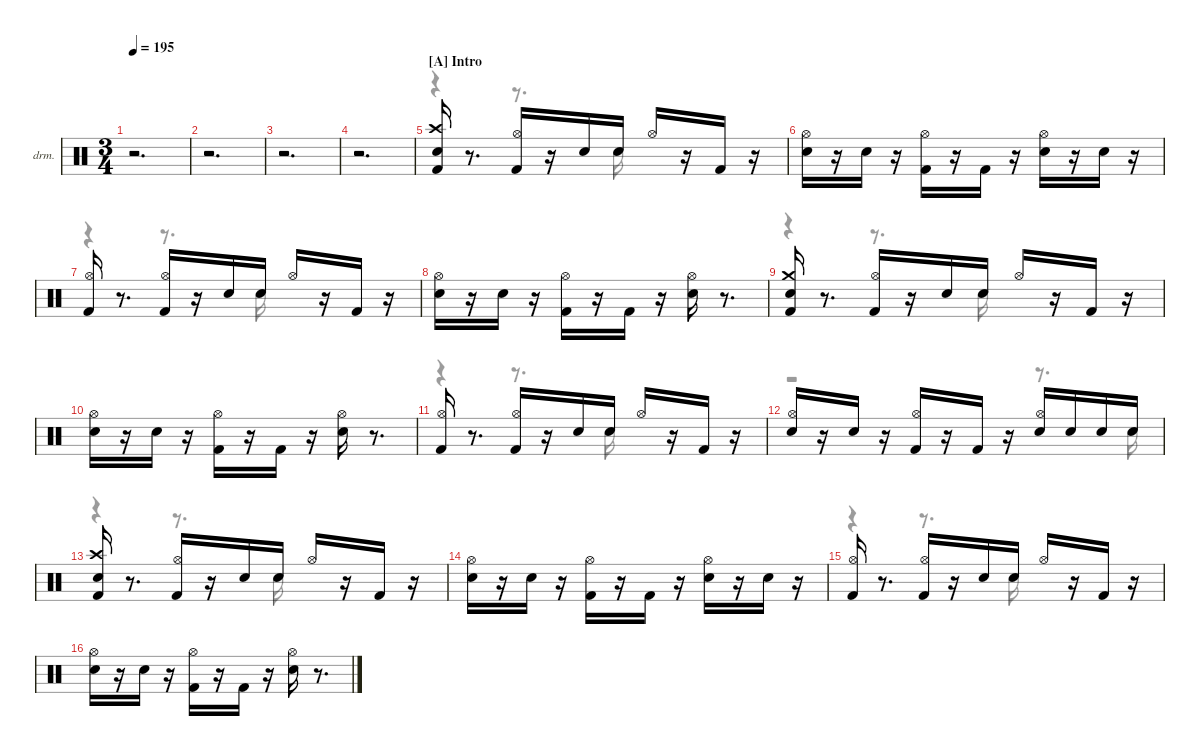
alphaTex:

\hideDynamics
\bracketExtendMode nobrackets
\firstSystemTrackNameOrientation horizontal
\track ("Drums" "drm.") {instrument percussion}
\staff {score}
\articulation defaults
\voice
\ts (3 4)
\tempo 195
\clef neutral
\ks aminor
r.2{d dy ff} |
r.2{d} |
r.2{d} |
r.2{d} |
\section ("A" "Intro")
("Kick (hit) 2" "Snare (hit) 2" "Crash high (hit)"{acc #}).16 r.8{d} ("Kick (hit) 2" "Hi-Hat (open)"{acc #}).16{dy mf} r.16 "Snare (hit) 2".16{dy f} "Snare (hit) 2".16{dy ppp} "Hi-Hat (open)"{acc #}.16{dy f} r.16 "Kick (hit) 2".16 r.16 |
("Snare (hit) 2" "Hi-Hat (open)"{acc #}).16{dy ff} r.16 "Snare (hit) 2".16{dy ppp} r.16 ("Kick (hit) 2" "Hi-Hat (open)"{acc #}).16 r.16 "Kick (hit) 2".16{dy ff} r.16 ("Snare (hit) 2" "Hi-Hat (open)"{acc #}).16{dy fff} r.16 "Snare (hit) 2".16{dy pp} r.16 |
("Kick (hit) 2" "Hi-Hat (open)"{acc #}).16{dy fff} r.8{d} ("Kick (hit) 2" "Hi-Hat (open)"{acc #}).16{dy f} r.16 "Snare (hit) 2".16 "Snare (hit) 2".16{dy ppp} "Hi-Hat (open)"{acc #}.16{dy ff} r.16 "Kick (hit) 2".16{dy f} r.16 |
("Snare (hit) 2" "Hi-Hat (open)"{acc #}).16{dy ff} r.16 "Snare (hit) 2".16{dy ppp} r.16 ("Kick (hit) 2" "Hi-Hat (open)"{acc #}).16 r.16 "Kick (hit) 2".16{dy ff} r.16 ("Snare (hit) 2" "Hi-Hat (open)"{acc #}).16 r.8{d} |
("Kick (hit) 2" "Snare (hit) 2" "Crash medium (hit)").16 r.8{d} ("Kick (hit) 2" "Hi-Hat (open)"{acc #}).16{dy mf} r.16 "Snare (hit) 2".16{dy f} "Snare (hit) 2".16{dy ppp} "Hi-Hat (open)"{acc #}.16{dy f} r.16 "Kick (hit) 2".16 r.16 |
("Snare (hit) 2" "Hi-Hat (open)"{acc #}).16{dy ff} r.16 "Snare (hit) 2".16{dy ppp} r.16 ("Kick (hit) 2" "Hi-Hat (open)"{acc #}).16 r.16 "Kick (hit) 2".16{dy ff} r.16 ("Snare (hit) 2" "Hi-Hat (open)"{acc #}).16{dy fff} r.8{d} |
("Kick (hit) 2" "Hi-Hat (open)"{acc #}).16{dy ff} r.8{d} ("Kick (hit) 2" "Hi-Hat (open)"{acc #}).16{dy mf} r.16 "Snare (hit) 2".16{dy f} "Snare (hit) 2".16{dy ppp} "Hi-Hat (open)"{acc #}.16{dy ff} r.16 "Kick (hit) 2".16{dy f} r.16 |
("Snare (hit) 2" "Hi-Hat (open)"{acc #}).16{dy ff} r.16 "Snare (hit) 2".16{dy ppp} r.16 ("Kick (hit) 2" "Hi-Hat (open)"{acc #}).16{dy mf} r.16 "Kick (hit) 2".16{dy ff} r.16 ("Snare (hit) 2" "Hi-Hat (open)"{acc #}).16{dy f} "Snare (hit) 2".16{dy pp} "Snare (hit) 2".16{dy ppp} "Snare (hit) 2".16 |
("Crash high (hit)"{acc #} "Kick (hit) 2" "Snare (hit) 2").16{dy ff} r.8{d} ("Kick (hit) 2" "Hi-Hat (open)"{acc #}).16{dy mf} r.16 "Snare (hit) 2".16{dy f} "Snare (hit) 2".16{dy ppp} "Hi-Hat (open)"{acc #}.16{dy f} r.16 "Kick (hit) 2".16 r.16 |
("Snare (hit) 2" "Hi-Hat (open)"{acc #}).16{dy ff} r.16 "Snare (hit) 2".16{dy ppp} r.16 ("Kick (hit) 2" "Hi-Hat (open)"{acc #}).16 r.16 "Kick (hit) 2".16{dy ff} r.16 ("Snare (hit) 2" "Hi-Hat (open)"{acc #}).16{dy fff} r.16 "Snare (hit) 2".16{dy pp} r.16 |
("Kick (hit) 2" "Hi-Hat (open)"{acc #}).16{dy ff} r.8{d} ("Kick (hit) 2" "Hi-Hat (open)"{acc #}).16{dy mf} r.16 "Snare (hit) 2".16{dy f} "Snare (hit) 2".16{dy ppp} "Hi-Hat (open)"{acc #}.16{dy ff} r.16 "Kick (hit) 2".16{dy f} r.16 |
("Snare (hit) 2" "Hi-Hat (open)"{acc #}).16{dy ff} r.16 "Snare (hit) 2".16{dy ppp} r.16 ("Kick (hit) 2" "Hi-Hat (open)"{acc #}).16 r.16 "Kick (hit) 2".16{dy ff} r.16 ("Snare (hit) 2" "Hi-Hat (open)"{acc #}).16 r.8{d}
\voice
\clef neutral
\ottava regular
\simile none
\ks aminor
|
|
|
|
r.4 r.8{d} "Snare (hit) 2".16 |
|
r.4 r.8{d} "Snare (hit) 2".16 |
|
r.4 r.8{d} "Snare (hit) 2".16 |
|
r.4 r.8{d} "Snare (hit) 2".16 |
r.2 r.8{d} "Snare (hit) 2".16{dy ppp} |
r.4 r.8{d} "Snare (hit) 2".16{dy pp} |
|
r.4 r.8{d} "Snare (hit) 2".16 |
